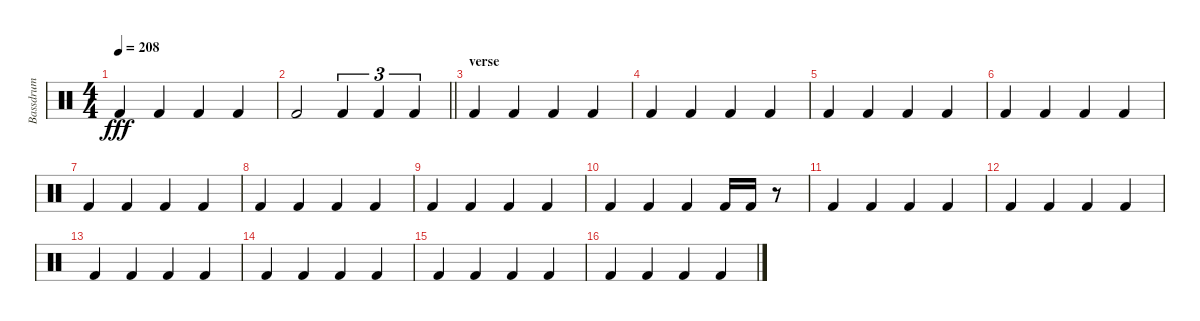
\track ("Bassdrum" "Bassdrum") {instrument percussion}
\staff {score}
\articulation defaults
\ts (4 4)
\tempo 208
\clef neutral
\ks c "Kick (hit) 2".4{dy fff} "Kick (hit) 2".4 "Kick (hit) 2".4 "Kick (hit) 2".4
|
\barLineRight lightlight "Kick (hit) 2".2 "Kick (hit) 2".4{tu (3 2)} "Kick (hit) 2".4{tu (3 2)} "Kick (hit) 2".4{tu (3 2)}
|
\section ("" "verse")
"Kick (hit) 2".4 "Kick (hit) 2".4 "Kick (hit) 2".4 "Kick (hit) 2".4 |
"Kick (hit) 2".4 "Kick (hit) 2".4 "Kick (hit) 2".4 "Kick (hit) 2".4 |
"Kick (hit) 2".4 "Kick (hit) 2".4 "Kick (hit) 2".4 "Kick (hit) 2".4 |
"Kick (hit) 2".4 "Kick (hit) 2".4 "Kick (hit) 2".4 "Kick (hit) 2".4 |
"Kick (hit) 2".4 "Kick (hit) 2".4 "Kick (hit) 2".4 "Kick (hit) 2".4 |
"Kick (hit) 2".4 "Kick (hit) 2".4 "Kick (hit) 2".4 "Kick (hit) 2".4 |
"Kick (hit) 2".4 "Kick (hit) 2".4 "Kick (hit) 2".4 "Kick (hit) 2".4 |
"Kick (hit) 2".4 "Kick (hit) 2".4 "Kick (hit) 2".4 "Kick (hit) 2".16 "Kick (hit) 2".16 r.8 |
"Kick (hit) 2".4 "Kick (hit) 2".4 "Kick (hit) 2".4 "Kick (hit) 2".4 |
"Kick (hit) 2".4 "Kick (hit) 2".4 "Kick (hit) 2".4 "Kick (hit) 2".4 |
"Kick (hit) 2".4 "Kick (hit) 2".4 "Kick (hit) 2".4 "Kick (hit) 2".4 |
"Kick (hit) 2".4 "Kick (hit) 2".4 "Kick (hit) 2".4 "Kick (hit) 2".4 |
"Kick (hit) 2".4 "Kick (hit) 2".4 "Kick (hit) 2".4 "Kick (hit) 2".4 |
"Kick (hit) 2".4 "Kick (hit) 2".4 "Kick (hit) 2".4 "Kick (hit) 2".4
